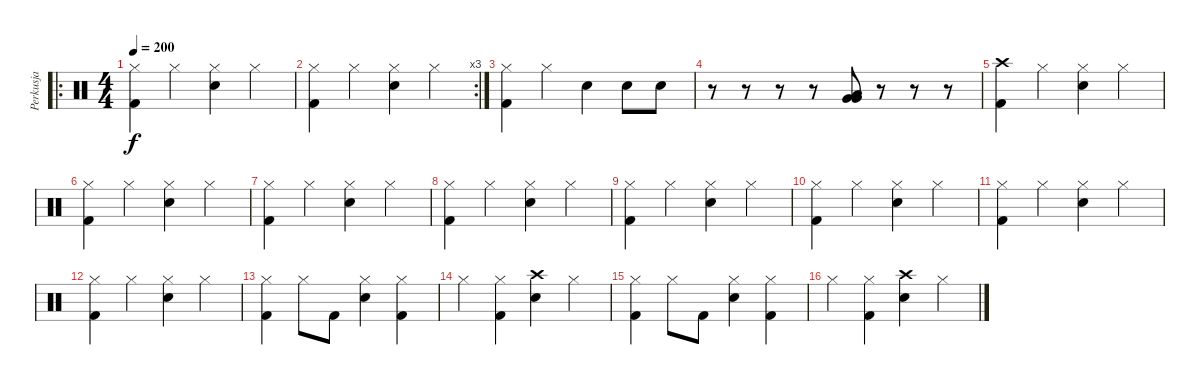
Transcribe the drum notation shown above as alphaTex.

\track ("Perkusja" "Perkusja") {instrument percussion}
\staff {score}
\articulation defaults
\ro
\ts (4 4)
\tempo 200
\clef neutral
\ks c
("Hi-Hat (closed)" "Kick (hit) 2").4{dy f} "Hi-Hat (closed)".4 ("Hi-Hat (closed)" "Snare (hit) 2").4 "Hi-Hat (closed)".4 |
\rc 3
("Hi-Hat (closed)" "Kick (hit) 2").4 "Hi-Hat (closed)".4 ("Hi-Hat (closed)" "Snare (hit) 2").4 "Hi-Hat (closed)".4 |
("Hi-Hat (closed)" "Kick (hit) 2").4 "Hi-Hat (closed)".4 "Snare (hit) 2".4 "Snare (hit) 2".8 "Snare (hit) 2".8 |
r.8 r.8 r.8 r.8 ("Very Low Tom (hit)" "Low Floor Tom (hit)" "Very Low Tom (hit)").8{bd 480} r.8 r.8 r.8 |
("Crash high (hit)" "Kick (hit) 2").4 "Hi-Hat (closed)".4 ("Hi-Hat (closed)" "Snare (hit) 2").4 "Hi-Hat (closed)".4 |
("Hi-Hat (closed)" "Kick (hit) 2").4 "Hi-Hat (closed)".4 ("Hi-Hat (closed)" "Snare (hit) 2").4 "Hi-Hat (closed)".4 |
("Hi-Hat (closed)" "Kick (hit) 2").4 "Hi-Hat (closed)".4 ("Hi-Hat (closed)" "Snare (hit) 2").4 "Hi-Hat (closed)".4 |
("Hi-Hat (closed)" "Kick (hit) 2").4 "Hi-Hat (closed)".4 ("Hi-Hat (closed)" "Snare (hit) 2").4 "Hi-Hat (closed)".4 |
("Hi-Hat (closed)" "Kick (hit) 2").4 "Hi-Hat (closed)".4 ("Hi-Hat (closed)" "Snare (hit) 2").4 "Hi-Hat (closed)".4 |
("Hi-Hat (closed)" "Kick (hit) 2").4 "Hi-Hat (closed)".4 ("Hi-Hat (closed)" "Snare (hit) 2").4 "Hi-Hat (closed)".4 |
("Hi-Hat (closed)" "Kick (hit) 2").4 "Hi-Hat (closed)".4 ("Hi-Hat (closed)" "Snare (hit) 2").4 "Hi-Hat (closed)".4 |
("Hi-Hat (closed)" "Kick (hit) 2").4 "Hi-Hat (closed)".4 ("Hi-Hat (closed)" "Snare (hit) 2").4 "Hi-Hat (closed)".4 |
("Hi-Hat (closed)" "Kick (hit) 2").4 "Hi-Hat (closed)".8 "Kick (hit) 2".8 ("Hi-Hat (closed)" "Snare (hit) 2").4 ("Hi-Hat (closed)" "Kick (hit) 2").4 |
"Hi-Hat (closed)".4 ("Hi-Hat (closed)" "Kick (hit) 2").4 ("Crash high (hit)" "Snare (hit) 2").4 "Hi-Hat (closed)".4 |
("Hi-Hat (closed)" "Kick (hit) 2").4 "Hi-Hat (closed)".8 "Kick (hit) 2".8 ("Hi-Hat (closed)" "Snare (hit) 2").4 ("Hi-Hat (closed)" "Kick (hit) 2").4 |
"Hi-Hat (closed)".4 ("Hi-Hat (closed)" "Kick (hit) 2").4 ("Crash high (hit)" "Snare (hit) 2").4 "Hi-Hat (closed)".4
